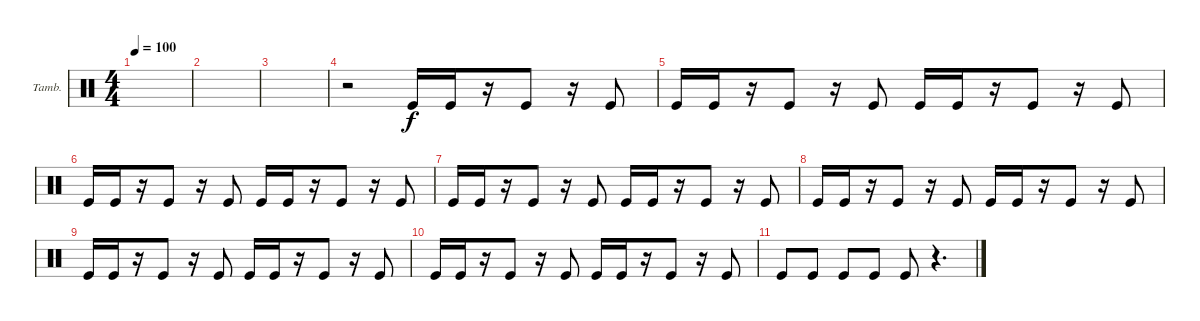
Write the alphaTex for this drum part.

\bracketExtendMode groupsimilarinstruments
\firstSystemTrackNameOrientation horizontal
\otherSystemsTrackNameOrientation horizontal
\track ("Tambourine" "Tamb.") {instrument percussion}
\staff {score}
\articulation defaults
\ts (4 4)
\tempo 100
\clef neutral
\scale
0.333333
\ks c
|
\scale
0.333333 |
\scale
0.333333 |
\scale
0.333333 r.2 "Kick (hit)".16 "Kick (hit)".16 r.16 "Kick (hit)".8 r.16 "Kick (hit)".8 |
\scale
0.333333 "Kick (hit)".16 "Kick (hit)".16 r.16 "Kick (hit)".8 r.16 "Kick (hit)".8 "Kick (hit)".16 "Kick (hit)".16 r.16 "Kick (hit)".8 r.16 "Kick (hit)".8 |
\scale
0.333333 "Kick (hit)".16 "Kick (hit)".16 r.16 "Kick (hit)".8 r.16 "Kick (hit)".8 "Kick (hit)".16 "Kick (hit)".16 r.16 "Kick (hit)".8 r.16 "Kick (hit)".8 |
\scale
0.333333 "Kick (hit)".16 "Kick (hit)".16 r.16 "Kick (hit)".8 r.16 "Kick (hit)".8 "Kick (hit)".16 "Kick (hit)".16 r.16 "Kick (hit)".8 r.16 "Kick (hit)".8 |
\scale
0.333333 "Kick (hit)".16 "Kick (hit)".16 r.16 "Kick (hit)".8 r.16 "Kick (hit)".8 "Kick (hit)".16 "Kick (hit)".16 r.16 "Kick (hit)".8 r.16 "Kick (hit)".8 |
\scale
0.333333 "Kick (hit)".16 "Kick (hit)".16 r.16 "Kick (hit)".8 r.16 "Kick (hit)".8 "Kick (hit)".16 "Kick (hit)".16 r.16 "Kick (hit)".8 r.16 "Kick (hit)".8 |
"Kick (hit)".16 "Kick (hit)".16 r.16 "Kick (hit)".8 r.16 "Kick (hit)".8 "Kick (hit)".16 "Kick (hit)".16 r.16 "Kick (hit)".8 r.16 "Kick (hit)".8 |
"Kick (hit)".8 "Kick (hit)".8 "Kick (hit)".8 "Kick (hit)".8 "Kick (hit)".8 r.4{d}
